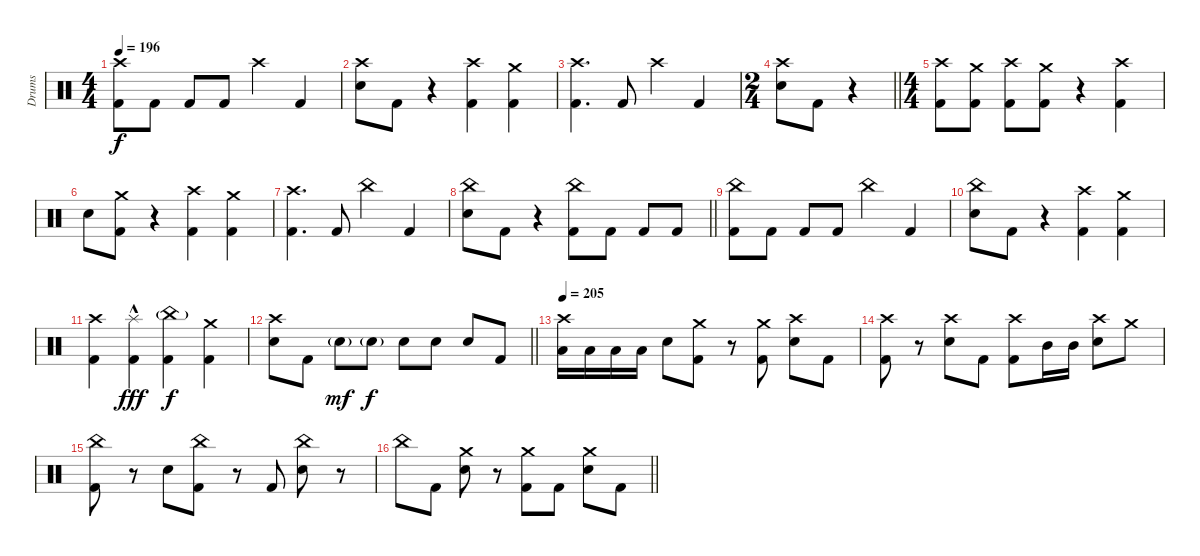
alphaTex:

\track ("Drums" "Drums") {instrument percussion}
\staff {score}
\articulation defaults
\ts (4 4)
\tempo 196
\clef neutral
\ks c
("Crash high (hit)" "Kick (hit) 2").8{dy f} "Kick (hit) 2".8 "Kick (hit) 2".8 "Kick (hit) 2".8 "Crash high (hit)".4 "Kick (hit) 2".4 |
("Crash high (hit)" "Electric Snare (hit)").8 "Kick (hit) 2".8 r.4 ("Crash high (hit)" "Kick (hit) 2").4 ("Crash medium (hit)" "Kick (hit) 2").4 |
("Crash high (hit)" "Kick (hit) 2").4{d} "Kick (hit) 2".8 "Crash high (hit)".4 "Kick (hit) 2".4 |
\ts (2 4)
\barLineRight lightlight
("Crash high (hit)" "Electric Snare (hit)").8 "Kick (hit) 2".8 r.4 |
\ts (4 4)
("Crash high (hit)" "Kick (hit) 2").8 ("Crash medium (hit)" "Kick (hit) 2").8 ("Crash high (hit)" "Kick (hit) 2").8 ("Crash medium (hit)" "Kick (hit) 2").8 r.4 ("Crash high (hit)" "Kick (hit) 2").4 |
"Electric Snare (hit)".8 ("Crash medium (hit)" "Kick (hit) 2").8 r.4 ("Crash high (hit)" "Kick (hit) 2").4 ("Crash medium (hit)" "Kick (hit) 2").4 |
("Crash high (hit)" "Kick (hit) 2").4{d} "Kick (hit) 2".8 "China (hit)".4 "Kick (hit) 2".4 |
\barLineRight lightlight
("China (hit)" "Electric Snare (hit)").8 "Kick (hit) 2".8 r.4 ("China (hit)" "Kick (hit) 2").8 "Kick (hit) 2".8 "Kick (hit) 2".8 "Kick (hit) 2".8 |
("China (hit)" "Kick (hit) 2").8 "Kick (hit) 2".8 "Kick (hit) 2".8 "Kick (hit) 2".8 "China (hit)".4 "Kick (hit) 2".4 |
("China (hit)" "Electric Snare (hit)").8 "Kick (hit) 2".8 r.4 ("Crash high (hit)" "Kick (hit) 2").4 ("Crash medium (hit)" "Kick (hit) 2").4 |
("Crash high (hit)" "Kick (hit) 2").4 ("Splash (hit)"{hac} "Kick (hit) 2").4{dy fff} ("China (hit)"{g} "Kick (hit) 2").4{dy f} ("Crash medium (hit)" "Kick (hit) 2").4 |
\barLineRight lightlight
("Crash high (hit)" "Electric Snare (hit)").8 "Kick (hit) 2".8 "Electric Snare (hit)"{g}.8{dy mf} "Electric Snare (hit)"{g}.8{dy f} "Electric Snare (hit)".8 "Electric Snare (hit)".8 "Electric Snare (hit)".8 "Kick (hit) 2".8 |
\tempo 205
("Crash high (hit)" "Low Tom (hit)").16 "Low Tom (hit)".16 "Low Tom (hit)".16 "Low Tom (hit)".16 "Electric Snare (hit)".8 ("Crash medium (hit)" "Kick (hit) 2").8 r.8 ("Crash medium (hit)" "Kick (hit) 2").8 ("Crash high (hit)" "Electric Snare (hit)").8 "Kick (hit) 2".8 |
("Crash high (hit)" "Kick (hit) 2").8 r.8 ("Crash high (hit)" "Electric Snare (hit)").8 "Kick (hit) 2".8 ("Crash high (hit)" "Kick (hit) 2").8 "Mid Tom (hit)".16 "Mid Tom (hit)".16 ("Crash high (hit)" "Electric Snare (hit)").8 "Crash medium (hit)".8 |
("China (hit)" "Kick (hit) 2").8 r.8 "Electric Snare (hit)".8 ("China (hit)" "Kick (hit) 2").8 r.8 "Kick (hit) 2".8 ("China (hit)" "Electric Snare (hit)").8 r.8 |
\barLineRight lightlight "China (hit)".8 "Kick (hit) 2".8
("Crash medium (hit)" "Electric Snare (hit)").8 r.8 ("Crash medium (hit)" "Kick (hit) 2").8 "Kick (hit) 2".8 ("Crash medium (hit)" "Electric Snare (hit)").8 "Kick (hit) 2".8
